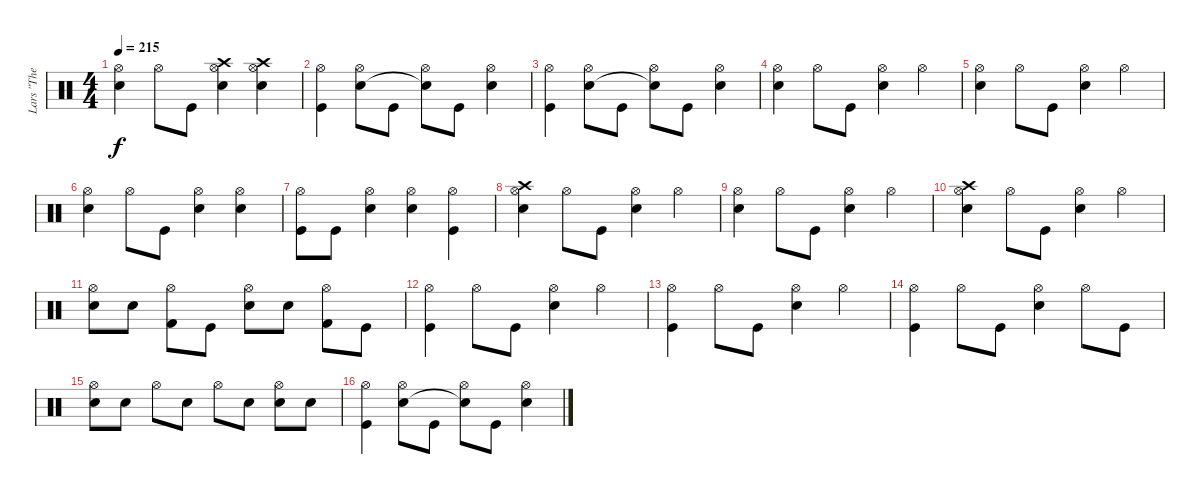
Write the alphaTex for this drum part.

\track ("Lars \"The Antichrist\" Ulrich" "Lars \"The ") {instrument percussion}
\staff {score}
\articulation defaults
\ts (4 4)
\tempo 215
\clef neutral
\ks c
("Hi-Hat (open)" "Electric Snare (hit)").4{dy f} "Hi-Hat (open)".8 "Kick (hit)".8 ("Hi-Hat (open)" "Crash high (hit)" "Electric Snare (hit)").4 ("Hi-Hat (open)" "Crash high (hit)" "Electric Snare (hit)").4 |
("Hi-Hat (open)" "Kick (hit)").4 ("Hi-Hat (open)" "Electric Snare (hit)").8 "Kick (hit)".8 ("Hi-Hat (open)" "Snare (hit)"{t}).8 "Kick (hit)".8 ("Hi-Hat (open)" "Electric Snare (hit)").4 |
("Hi-Hat (open)" "Kick (hit)").4 ("Hi-Hat (open)" "Electric Snare (hit)").8 "Kick (hit)".8 ("Hi-Hat (open)" "Snare (hit)"{t}).8 "Kick (hit)".8 ("Hi-Hat (open)" "Electric Snare (hit)").4 |
("Hi-Hat (open)" "Electric Snare (hit)").4 "Hi-Hat (open)".8 "Kick (hit)".8 ("Hi-Hat (open)" "Electric Snare (hit)").4 "Hi-Hat (open)".4 |
("Hi-Hat (open)" "Electric Snare (hit)").4 "Hi-Hat (open)".8 "Kick (hit)".8 ("Hi-Hat (open)" "Electric Snare (hit)").4 "Hi-Hat (open)".4 |
("Hi-Hat (open)" "Electric Snare (hit)").4 "Hi-Hat (open)".8 "Kick (hit)".8 ("Hi-Hat (open)" "Electric Snare (hit)").4 ("Hi-Hat (open)" "Electric Snare (hit)").4 |
("Hi-Hat (open)" "Kick (hit)").8 "Kick (hit)".8 ("Hi-Hat (open)" "Electric Snare (hit)").4 ("Hi-Hat (open)" "Electric Snare (hit)").4 ("Hi-Hat (open)" "Kick (hit)").4 |
("Hi-Hat (open)" "Crash high (hit)" "Electric Snare (hit)").4 "Hi-Hat (open)".8 "Kick (hit)".8 ("Hi-Hat (open)" "Electric Snare (hit)").4 "Hi-Hat (open)".4 |
("Hi-Hat (open)" "Electric Snare (hit)").4 "Hi-Hat (open)".8 "Kick (hit)".8 ("Hi-Hat (open)" "Electric Snare (hit)").4 "Hi-Hat (open)".4 |
("Hi-Hat (open)" "Crash high (hit)" "Electric Snare (hit)").4 "Hi-Hat (open)".8 "Kick (hit)".8 ("Hi-Hat (open)" "Electric Snare (hit)").4 "Hi-Hat (open)".4 |
("Hi-Hat (open)" "Electric Snare (hit)").8 "Electric Snare (hit)".8 ("Hi-Hat (open)" "Kick (hit) 2").8 "Kick (hit)".8 ("Hi-Hat (open)" "Electric Snare (hit)").8 "Electric Snare (hit)".8 ("Hi-Hat (open)" "Kick (hit) 2").8 "Kick (hit)".8 |
("Hi-Hat (open)" "Kick (hit)").4 "Hi-Hat (open)".8 "Kick (hit)".8 ("Hi-Hat (open)" "Electric Snare (hit)").4 "Hi-Hat (open)".4 |
("Hi-Hat (open)" "Kick (hit)").4 "Hi-Hat (open)".8 "Kick (hit)".8 ("Hi-Hat (open)" "Electric Snare (hit)").4 "Hi-Hat (open)".4 |
("Hi-Hat (open)" "Kick (hit)").4 "Hi-Hat (open)".8 "Kick (hit)".8 ("Hi-Hat (open)" "Electric Snare (hit)").4 "Hi-Hat (open)".8 "Kick (hit)".8 |
("Hi-Hat (open)" "Electric Snare (hit)").8 "Electric Snare (hit)".8 "Hi-Hat (open)".8 "Electric Snare (hit)".8 "Hi-Hat (open)".8 "Electric Snare (hit)".8 ("Hi-Hat (open)" "Electric Snare (hit)").8 "Electric Snare (hit)".8 |
("Hi-Hat (open)" "Kick (hit)").4 ("Hi-Hat (open)" "Electric Snare (hit)").8 "Kick (hit)".8 ("Hi-Hat (open)" "Snare (hit)"{t}).8 "Kick (hit)".8 ("Hi-Hat (open)" "Electric Snare (hit)").4
